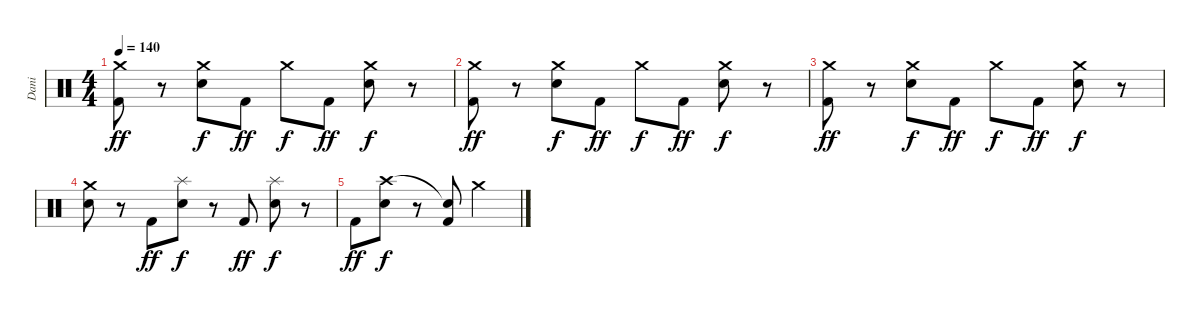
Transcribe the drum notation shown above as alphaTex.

\track ("Dani" "Dani") {instrument percussion}
\staff {score}
\articulation defaults
\ts (4 4)
\tempo 140
\clef neutral
\ks c
("Crash medium (hit)" "Kick (hit) 2").8{dy ff} r.8 ("Crash medium (hit)" "Snare (hit) 2").8{dy f} "Kick (hit) 2".8{dy ff} "Crash medium (hit)".8{dy f} "Kick (hit) 2".8{dy ff} ("Crash medium (hit)" "Snare (hit) 2").8{dy f} r.8 |
("Crash medium (hit)" "Kick (hit) 2").8{dy ff} r.8 ("Crash medium (hit)" "Snare (hit) 2").8{dy f} "Kick (hit) 2".8{dy ff} "Crash medium (hit)".8{dy f} "Kick (hit) 2".8{dy ff} ("Crash medium (hit)" "Snare (hit) 2").8{dy f} r.8 |
("Crash medium (hit)" "Kick (hit) 2").8{dy ff} r.8 ("Crash medium (hit)" "Snare (hit) 2").8{dy f} "Kick (hit) 2".8{dy ff} "Crash medium (hit)".8{dy f} "Kick (hit) 2".8{dy ff} ("Crash medium (hit)" "Snare (hit) 2").8{dy f} r.8 |
("Crash medium (hit)" "Snare (hit) 2").8 r.8 "Kick (hit) 2".8{dy ff} ("Splash (hit)" "Snare (hit) 2").8{dy f} r.8 "Kick (hit) 2".8{dy ff} ("Splash (hit)" "Snare (hit) 2").8{dy f} r.8 |
"Kick (hit) 2".8{dy ff} ("Crash high (hit)" "Snare (hit) 2").8{dy f} r.8 ("Snare (hit)"{t} "Kick (hit) 2").8 "Crash medium (hit)".2
